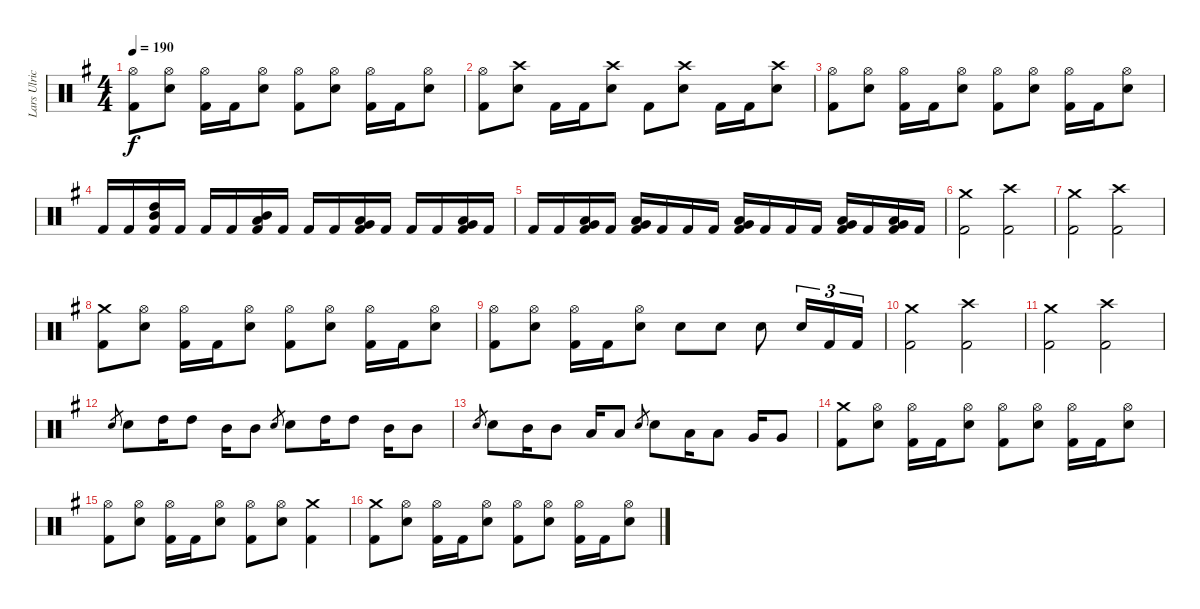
\track ("Lars Ulrich - Drums" "Lars Ulric") {instrument percussion}
\staff {score}
\articulation defaults
\ts (4 4)
\tempo 190
\clef neutral
\ks eminor
("Hi-Hat (open)" "Kick (hit) 2").8{dy f} ("Hi-Hat (open)" "Snare (hit) 2").8 ("Hi-Hat (open)" "Kick (hit) 2").16 "Kick (hit) 2".16 ("Hi-Hat (open)" "Snare (hit) 2").8 ("Hi-Hat (open)" "Kick (hit) 2").8 ("Hi-Hat (open)" "Snare (hit) 2").8 ("Hi-Hat (open)" "Kick (hit) 2").16 "Kick (hit) 2".16 ("Hi-Hat (open)" "Snare (hit) 2").8 |
("Hi-Hat (open)" "Kick (hit) 2").8 ("Crash high (hit)" "Snare (hit) 2").8 "Kick (hit) 2".16 "Kick (hit) 2".16 ("Crash high (hit)" "Snare (hit) 2").8 "Kick (hit) 2".8 ("Crash high (hit)" "Snare (hit) 2").8 "Kick (hit) 2".16 "Kick (hit) 2".16 ("Crash high (hit)" "Snare (hit) 2").8 |
("Hi-Hat (open)" "Kick (hit) 2").8 ("Hi-Hat (open)" "Snare (hit) 2").8 ("Hi-Hat (open)" "Kick (hit) 2").16 "Kick (hit) 2".16 ("Hi-Hat (open)" "Snare (hit) 2").8 ("Hi-Hat (open)" "Kick (hit) 2").8 ("Hi-Hat (open)" "Snare (hit) 2").8 ("Hi-Hat (open)" "Kick (hit) 2").16 "Kick (hit) 2".16 ("Hi-Hat (open)" "Snare (hit) 2").8 |
"Kick (hit) 2".16 "Kick (hit) 2".16 ("High Tom (hit)" "Mid Tom (hit)" "Kick (hit) 2").16 "Kick (hit) 2".16 "Kick (hit) 2".16 "Kick (hit) 2".16 ("Mid Tom (hit)" "Low Tom (hit)" "Kick (hit) 2").16 "Kick (hit) 2".16 "Kick (hit) 2".16 "Kick (hit) 2".16 ("Low Tom (hit)" "Very Low Tom (hit)" "Kick (hit) 2").16 "Kick (hit) 2".16 "Kick (hit) 2".16 "Kick (hit) 2".16 ("Very Low Tom (hit)" "Low Floor Tom (hit)" "Kick (hit) 2").16 "Kick (hit) 2".16 |
"Kick (hit) 2".16 "Kick (hit) 2".16 ("Very Low Tom (hit)" "Low Floor Tom (hit)" "Kick (hit) 2").16 "Kick (hit) 2".16 ("Very Low Tom (hit)" "Low Floor Tom (hit)" "Kick (hit) 2").16 "Kick (hit) 2".16 "Kick (hit) 2".16 "Kick (hit) 2".16 ("Very Low Tom (hit)" "Low Floor Tom (hit)" "Kick (hit) 2").16 "Kick (hit) 2".16 "Kick (hit) 2".16 "Kick (hit) 2".16 ("Very Low Tom (hit)" "Low Floor Tom (hit)" "Kick (hit) 2").16 "Kick (hit) 2".16 ("Very Low Tom (hit)" "Low Floor Tom (hit)" "Kick (hit) 2").16 "Kick (hit) 2".16 |
("Crash medium (hit)" "Kick (hit) 2").2 ("Crash high (hit)" "Kick (hit) 2").2 |
("Crash medium (hit)" "Kick (hit) 2").2 ("Crash high (hit)" "Kick (hit) 2").2 |
("Crash medium (hit)" "Kick (hit) 2").8 ("Hi-Hat (open)" "Snare (hit) 2").8 ("Hi-Hat (open)" "Kick (hit) 2").16 "Kick (hit) 2".16 ("Hi-Hat (open)" "Snare (hit) 2").8 ("Hi-Hat (open)" "Kick (hit) 2").8 ("Hi-Hat (open)" "Snare (hit) 2").8 ("Hi-Hat (open)" "Kick (hit) 2").16 "Kick (hit) 2".16 ("Hi-Hat (open)" "Snare (hit) 2").8 |
("Hi-Hat (open)" "Kick (hit) 2").8 ("Hi-Hat (open)" "Snare (hit) 2").8 ("Hi-Hat (open)" "Kick (hit) 2").16 "Kick (hit) 2".16 ("Hi-Hat (open)" "Snare (hit) 2").8 "Snare (hit) 2".8 "Snare (hit) 2".8 "Snare (hit) 2".8 "Snare (hit) 2".16{tu (3 2)} "Kick (hit) 2".16{tu (3 2)} "Kick (hit) 2".16{tu (3 2)} |
("Crash medium (hit)" "Kick (hit) 2").2 ("Crash high (hit)" "Kick (hit) 2").2 |
("Crash medium (hit)" "Kick (hit) 2").2 ("Crash high (hit)" "Kick (hit) 2").2 |
"Electric Snare (hit)".8{gr} "Snare (hit) 2".8 "High Tom (hit)".16 "High Tom (hit)".8 "Mid Tom (hit)".16 "Mid Tom (hit)".8 "Electric Snare (hit)".8{gr} "Snare (hit) 2".8 "High Tom (hit)".16 "High Tom (hit)".8 "Mid Tom (hit)".16 "Mid Tom (hit)".8 |
"Electric Snare (hit)".8{gr} "Snare (hit) 2".8 "Mid Tom (hit)".16 "Mid Tom (hit)".8 "Low Tom (hit)".16 "Low Tom (hit)".8 "Electric Snare (hit)".8{gr} "Snare (hit) 2".8 "Low Tom (hit)".16 "Low Tom (hit)".8 "Very Low Tom (hit)".16 "Very Low Tom (hit)".8 |
("Crash medium (hit)" "Kick (hit) 2").8 ("Hi-Hat (open)" "Snare (hit) 2").8 ("Hi-Hat (open)" "Kick (hit) 2").16 "Kick (hit) 2".16 ("Hi-Hat (open)" "Snare (hit) 2").8 ("Hi-Hat (open)" "Kick (hit) 2").8 ("Hi-Hat (open)" "Snare (hit) 2").8 ("Hi-Hat (open)" "Kick (hit) 2").16 "Kick (hit) 2".16 ("Hi-Hat (open)" "Snare (hit) 2").8 |
("Hi-Hat (open)" "Kick (hit) 2").8 ("Hi-Hat (open)" "Snare (hit) 2").8 ("Hi-Hat (open)" "Kick (hit) 2").16 "Kick (hit) 2".16 ("Hi-Hat (open)" "Snare (hit) 2").8 ("Hi-Hat (open)" "Kick (hit) 2").8 ("Hi-Hat (open)" "Snare (hit) 2").8 ("Crash medium (hit)" "Kick (hit) 2").4 |
("Crash medium (hit)" "Kick (hit) 2").8 ("Hi-Hat (open)" "Snare (hit) 2").8 ("Hi-Hat (open)" "Kick (hit) 2").16 "Kick (hit) 2".16 ("Hi-Hat (open)" "Snare (hit) 2").8 ("Hi-Hat (open)" "Kick (hit) 2").8 ("Hi-Hat (open)" "Snare (hit) 2").8 ("Hi-Hat (open)" "Kick (hit) 2").16 "Kick (hit) 2".16 ("Hi-Hat (open)" "Snare (hit) 2").8
